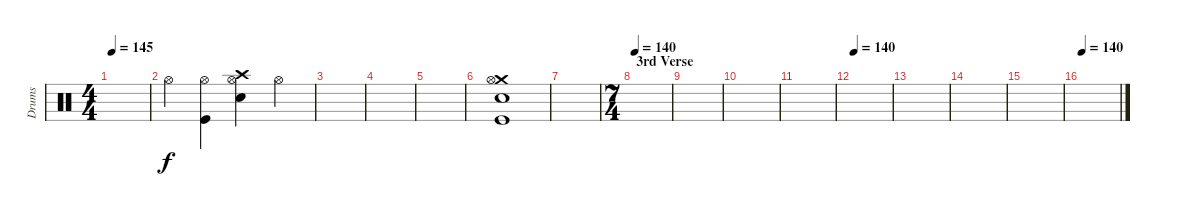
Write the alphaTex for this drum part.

\track ("Drums" "Drums") {instrument percussion}
\staff {score}
\articulation defaults
\ts (4 4)
\tempo 145
\clef neutral
\ks c
|
"Hi-Hat (open)".4 ("Hi-Hat (open)" "Kick (hit)").4 ("Crash high (hit)" "Hi-Hat (open)" "Snare (hit) 2").4 "Hi-Hat (open)".4 |
|
|
|
("Crash medium (hit)" "Hi-Hat (open)" "Snare (hit) 2" "Kick (hit)").1 |
|
\ts (7 4)
\section ("" "3rd Verse")
\tempo 140
|
|
|
|
\tempo 140
|
|
|
|
\tempo 140
